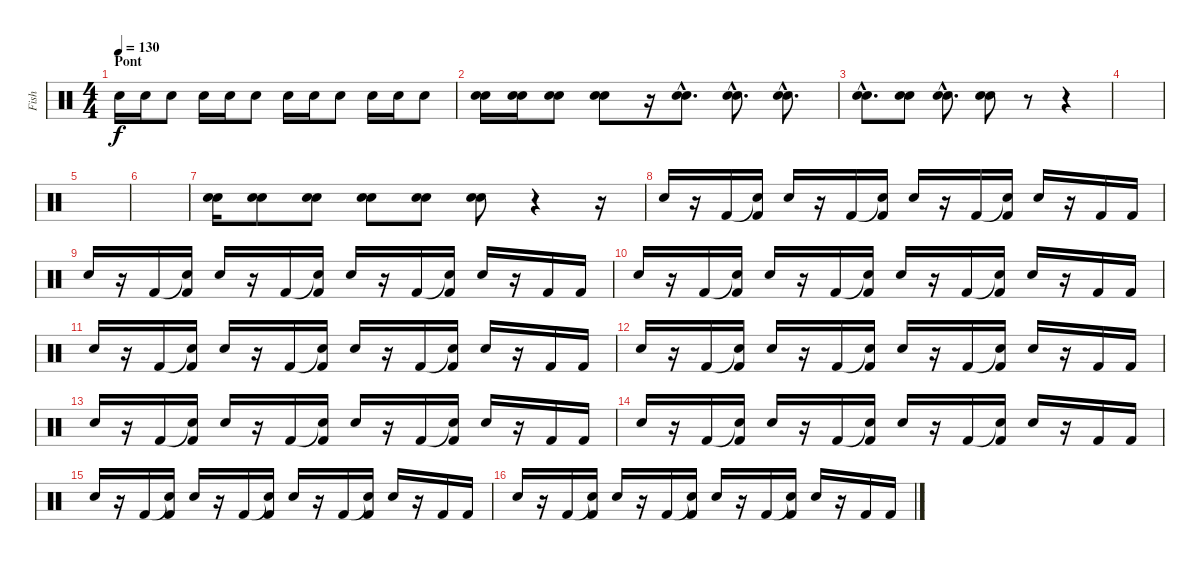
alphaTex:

\track ("Fish" "Fish") {instrument percussion}
\staff {score}
\articulation defaults
\ts (4 4)
\section ("" "Pont")
\tempo 130
\clef neutral
\ks c "Snare (hit) 2".16{dy f} "Snare (hit) 2".16 "Snare (hit) 2".8 "Snare (hit) 2".16 "Snare (hit) 2".16 "Snare (hit) 2".8 "Snare (hit) 2".16 "Snare (hit) 2".16 "Snare (hit) 2".8 "Snare (hit) 2".16 "Snare (hit) 2".16 "Snare (hit) 2".8
|
("Snare (hit) 2" "Snare (hit) 2").16 ("Snare (hit) 2" "Snare (hit) 2").16 ("Snare (hit) 2" "Snare (hit) 2").8 ("Snare (hit) 2" "Snare (hit) 2").8 r.16 ("Snare (hit) 2"{hac} "Snare (hit) 2"{hac}).8{d} ("Snare (hit) 2"{hac} "Snare (hit) 2"{hac}).8{d} ("Snare (hit) 2"{hac} "Snare (hit) 2"{hac}).8{d} |
("Snare (hit) 2"{hac} "Snare (hit) 2"{hac}).8{d} ("Snare (hit) 2" "Snare (hit) 2").8 ("Snare (hit) 2"{hac} "Snare (hit) 2"{hac}).8{d} ("Snare (hit) 2" "Snare (hit) 2").8 r.8 r.4 |
|
|
|
("Snare (hit) 2" "Snare (hit) 2").16 ("Snare (hit) 2" "Snare (hit) 2").8 ("Snare (hit) 2" "Snare (hit) 2").8 ("Snare (hit) 2" "Snare (hit) 2").8 ("Snare (hit) 2" "Snare (hit) 2").8 ("Snare (hit) 2" "Snare (hit) 2").8 r.4 r.16 |
"Snare (hit) 2".16 r.16 "Kick (hit) 2".16 ("Snare (hit) 2"{t} "Kick (hit) 2").16 "Snare (hit) 2".16 r.16 "Kick (hit) 2".16 ("Snare (hit) 2"{t} "Kick (hit) 2").16 "Snare (hit) 2".16 r.16 "Kick (hit) 2".16 ("Snare (hit) 2"{t} "Kick (hit) 2").16 "Snare (hit) 2".16 r.16 "Kick (hit) 2".16 "Kick (hit) 2".16 |
"Snare (hit) 2".16 r.16 "Kick (hit) 2".16 ("Snare (hit) 2"{t} "Kick (hit) 2").16 "Snare (hit) 2".16 r.16 "Kick (hit) 2".16 ("Snare (hit) 2"{t} "Kick (hit) 2").16 "Snare (hit) 2".16 r.16 "Kick (hit) 2".16 ("Snare (hit) 2"{t} "Kick (hit) 2").16 "Snare (hit) 2".16 r.16 "Kick (hit) 2".16 "Kick (hit) 2".16 |
"Snare (hit) 2".16 r.16 "Kick (hit) 2".16 ("Snare (hit) 2"{t} "Kick (hit) 2").16 "Snare (hit) 2".16 r.16 "Kick (hit) 2".16 ("Snare (hit) 2"{t} "Kick (hit) 2").16 "Snare (hit) 2".16 r.16 "Kick (hit) 2".16 ("Snare (hit) 2"{t} "Kick (hit) 2").16 "Snare (hit) 2".16 r.16 "Kick (hit) 2".16 "Kick (hit) 2".16 |
"Snare (hit) 2".16 r.16 "Kick (hit) 2".16 ("Snare (hit) 2"{t} "Kick (hit) 2").16 "Snare (hit) 2".16 r.16 "Kick (hit) 2".16 ("Snare (hit) 2"{t} "Kick (hit) 2").16 "Snare (hit) 2".16 r.16 "Kick (hit) 2".16 ("Snare (hit) 2"{t} "Kick (hit) 2").16 "Snare (hit) 2".16 r.16 "Kick (hit) 2".16 "Kick (hit) 2".16 |
"Snare (hit) 2".16 r.16 "Kick (hit) 2".16 ("Snare (hit) 2"{t} "Kick (hit) 2").16 "Snare (hit) 2".16 r.16 "Kick (hit) 2".16 ("Snare (hit) 2"{t} "Kick (hit) 2").16 "Snare (hit) 2".16 r.16 "Kick (hit) 2".16 ("Snare (hit) 2"{t} "Kick (hit) 2").16 "Snare (hit) 2".16 r.16 "Kick (hit) 2".16 "Kick (hit) 2".16 |
"Snare (hit) 2".16 r.16 "Kick (hit) 2".16 ("Snare (hit) 2"{t} "Kick (hit) 2").16 "Snare (hit) 2".16 r.16 "Kick (hit) 2".16 ("Snare (hit) 2"{t} "Kick (hit) 2").16 "Snare (hit) 2".16 r.16 "Kick (hit) 2".16 ("Snare (hit) 2"{t} "Kick (hit) 2").16 "Snare (hit) 2".16 r.16 "Kick (hit) 2".16 "Kick (hit) 2".16 |
"Snare (hit) 2".16 r.16 "Kick (hit) 2".16 ("Snare (hit) 2"{t} "Kick (hit) 2").16 "Snare (hit) 2".16 r.16 "Kick (hit) 2".16 ("Snare (hit) 2"{t} "Kick (hit) 2").16 "Snare (hit) 2".16 r.16 "Kick (hit) 2".16 ("Snare (hit) 2"{t} "Kick (hit) 2").16 "Snare (hit) 2".16 r.16 "Kick (hit) 2".16 "Kick (hit) 2".16 |
"Snare (hit) 2".16 r.16 "Kick (hit) 2".16 ("Snare (hit) 2"{t} "Kick (hit) 2").16 "Snare (hit) 2".16 r.16 "Kick (hit) 2".16 ("Snare (hit) 2"{t} "Kick (hit) 2").16 "Snare (hit) 2".16 r.16 "Kick (hit) 2".16 ("Snare (hit) 2"{t} "Kick (hit) 2").16 "Snare (hit) 2".16 r.16 "Kick (hit) 2".16 "Kick (hit) 2".16 |
"Snare (hit) 2".16 r.16 "Kick (hit) 2".16 ("Snare (hit) 2"{t} "Kick (hit) 2").16 "Snare (hit) 2".16 r.16 "Kick (hit) 2".16 ("Snare (hit) 2"{t} "Kick (hit) 2").16 "Snare (hit) 2".16 r.16 "Kick (hit) 2".16 ("Snare (hit) 2"{t} "Kick (hit) 2").16 "Snare (hit) 2".16 r.16 "Kick (hit) 2".16 "Kick (hit) 2".16
